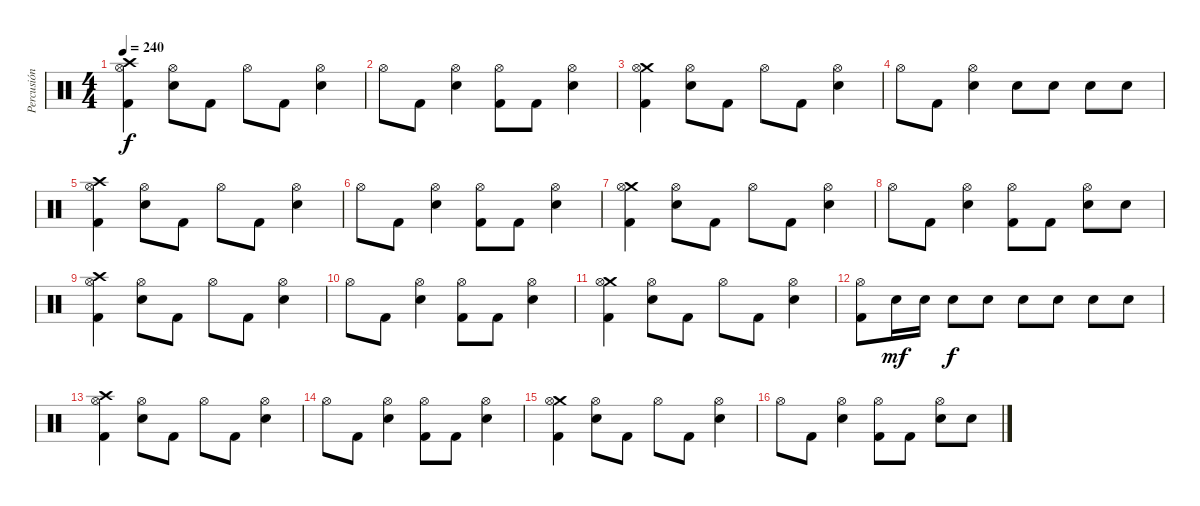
\track ("Percusión" "Percusión") {instrument percussion}
\staff {score}
\articulation defaults
\ts (4 4)
\tempo 240
\clef neutral
\ks c
("Crash high (hit)" "Hi-Hat (open)" "Kick (hit) 2").4{dy f} ("Hi-Hat (open)" "Snare (hit) 2").8 "Kick (hit) 2".8 "Hi-Hat (open)".8 "Kick (hit) 2".8 ("Hi-Hat (open)" "Snare (hit) 2").4 |
"Hi-Hat (open)".8 "Kick (hit) 2".8 ("Hi-Hat (open)" "Snare (hit) 2").4 ("Hi-Hat (open)" "Kick (hit) 2").8 "Kick (hit) 2".8 ("Hi-Hat (open)" "Snare (hit) 2").4 |
("Crash medium (hit)" "Hi-Hat (open)" "Kick (hit) 2").4 ("Hi-Hat (open)" "Snare (hit) 2").8 "Kick (hit) 2".8 "Hi-Hat (open)".8 "Kick (hit) 2".8 ("Hi-Hat (open)" "Snare (hit) 2").4 |
"Hi-Hat (open)".8 "Kick (hit) 2".8 ("Hi-Hat (open)" "Snare (hit) 2").4 "Snare (hit) 2".8 "Snare (hit) 2".8 "Snare (hit) 2".8 "Snare (hit) 2".8 |
("Crash high (hit)" "Hi-Hat (open)" "Kick (hit) 2").4 ("Hi-Hat (open)" "Snare (hit) 2").8 "Kick (hit) 2".8 "Hi-Hat (open)".8 "Kick (hit) 2".8 ("Hi-Hat (open)" "Snare (hit) 2").4 |
"Hi-Hat (open)".8 "Kick (hit) 2".8 ("Hi-Hat (open)" "Snare (hit) 2").4 ("Hi-Hat (open)" "Kick (hit) 2").8 "Kick (hit) 2".8 ("Hi-Hat (open)" "Snare (hit) 2").4 |
("Crash medium (hit)" "Hi-Hat (open)" "Kick (hit) 2").4 ("Hi-Hat (open)" "Snare (hit) 2").8 "Kick (hit) 2".8 "Hi-Hat (open)".8 "Kick (hit) 2".8 ("Hi-Hat (open)" "Snare (hit) 2").4 |
"Hi-Hat (open)".8 "Kick (hit) 2".8 ("Hi-Hat (open)" "Snare (hit) 2").4 ("Hi-Hat (open)" "Kick (hit) 2").8 "Kick (hit) 2".8 ("Hi-Hat (open)" "Snare (hit) 2").8 "Snare (hit) 2".8 |
("Crash high (hit)" "Hi-Hat (open)" "Kick (hit) 2").4 ("Hi-Hat (open)" "Snare (hit) 2").8 "Kick (hit) 2".8 "Hi-Hat (open)".8 "Kick (hit) 2".8 ("Hi-Hat (open)" "Snare (hit) 2").4 |
"Hi-Hat (open)".8 "Kick (hit) 2".8 ("Hi-Hat (open)" "Snare (hit) 2").4 ("Hi-Hat (open)" "Kick (hit) 2").8 "Kick (hit) 2".8 ("Hi-Hat (open)" "Snare (hit) 2").4 |
("Crash medium (hit)" "Hi-Hat (open)" "Kick (hit) 2").4 ("Hi-Hat (open)" "Snare (hit) 2").8 "Kick (hit) 2".8 "Hi-Hat (open)".8 "Kick (hit) 2".8 ("Hi-Hat (open)" "Snare (hit) 2").4 |
("Hi-Hat (open)" "Kick (hit) 2").8 "Snare (hit) 2".16{dy mf} "Snare (hit) 2".16 "Snare (hit) 2".8{dy f} "Snare (hit) 2".8 "Snare (hit) 2".8 "Snare (hit) 2".8 "Snare (hit) 2".8 "Snare (hit) 2".8 |
("Crash high (hit)" "Hi-Hat (open)" "Kick (hit) 2").4 ("Hi-Hat (open)" "Snare (hit) 2").8 "Kick (hit) 2".8 "Hi-Hat (open)".8 "Kick (hit) 2".8 ("Hi-Hat (open)" "Snare (hit) 2").4 |
"Hi-Hat (open)".8 "Kick (hit) 2".8 ("Hi-Hat (open)" "Snare (hit) 2").4 ("Hi-Hat (open)" "Kick (hit) 2").8 "Kick (hit) 2".8 ("Hi-Hat (open)" "Snare (hit) 2").4 |
("Crash medium (hit)" "Hi-Hat (open)" "Kick (hit) 2").4 ("Hi-Hat (open)" "Snare (hit) 2").8 "Kick (hit) 2".8 "Hi-Hat (open)".8 "Kick (hit) 2".8 ("Hi-Hat (open)" "Snare (hit) 2").4 |
"Hi-Hat (open)".8 "Kick (hit) 2".8 ("Hi-Hat (open)" "Snare (hit) 2").4 ("Hi-Hat (open)" "Kick (hit) 2").8 "Kick (hit) 2".8 ("Hi-Hat (open)" "Snare (hit) 2").8 "Snare (hit) 2".8
